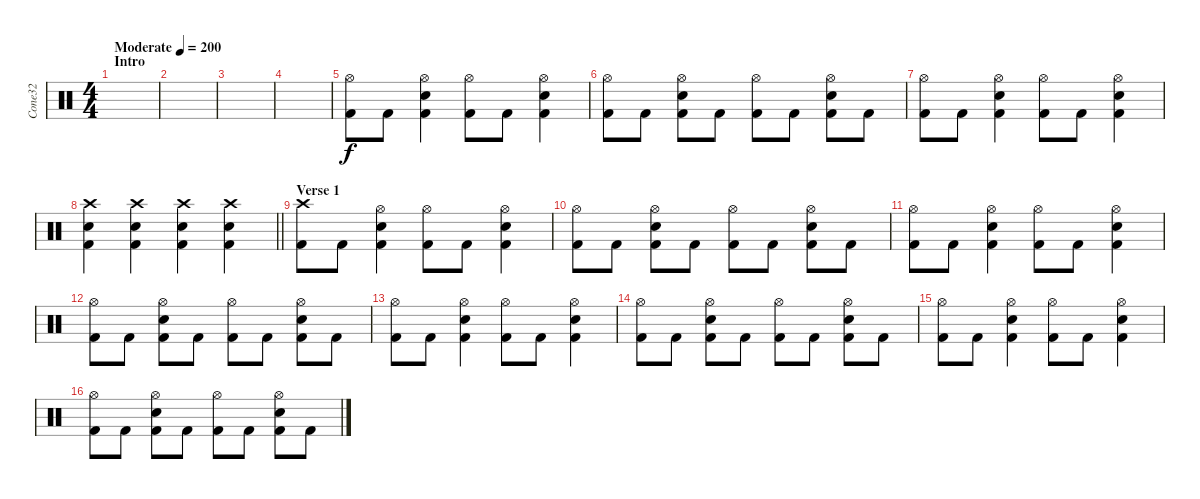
\track ("Cone32" "Cone32") {instrument percussion}
\staff {score}
\articulation defaults
\ts (4 4)
\section ("" "Intro")
\tempo (200 "Moderate")
\clef neutral
\ks c
|
|
|
|
("Hi-Hat (open)" "Kick (hit) 2").8 "Kick (hit) 2".8 ("Hi-Hat (open)" "Snare (hit) 2" "Kick (hit) 2").4 ("Hi-Hat (open)" "Kick (hit) 2").8 "Kick (hit) 2".8 ("Hi-Hat (open)" "Snare (hit) 2" "Kick (hit) 2").4 |
("Hi-Hat (open)" "Kick (hit) 2").8 "Kick (hit) 2".8 ("Hi-Hat (open)" "Snare (hit) 2" "Kick (hit) 2").8 "Kick (hit) 2".8 ("Hi-Hat (open)" "Kick (hit) 2").8 "Kick (hit) 2".8 ("Hi-Hat (open)" "Snare (hit) 2" "Kick (hit) 2").8 "Kick (hit) 2".8 |
("Hi-Hat (open)" "Kick (hit) 2").8 "Kick (hit) 2".8 ("Hi-Hat (open)" "Snare (hit) 2" "Kick (hit) 2").4 ("Hi-Hat (open)" "Kick (hit) 2").8 "Kick (hit) 2".8 ("Hi-Hat (open)" "Snare (hit) 2" "Kick (hit) 2").4 |
\barLineRight lightlight
("Crash high (hit)" "Snare (hit) 2" "Kick (hit) 2").4 ("Crash high (hit)" "Snare (hit) 2" "Kick (hit) 2").4 ("Crash high (hit)" "Snare (hit) 2" "Kick (hit) 2").4 ("Crash high (hit)" "Snare (hit) 2" "Kick (hit) 2").4 |
\section ("" "Verse 1")
("Crash high (hit)" "Kick (hit) 2").8 "Kick (hit) 2".8 ("Hi-Hat (open)" "Snare (hit) 2" "Kick (hit) 2").4 ("Hi-Hat (open)" "Kick (hit) 2").8 "Kick (hit) 2".8 ("Hi-Hat (open)" "Snare (hit) 2" "Kick (hit) 2").4 |
("Hi-Hat (open)" "Kick (hit) 2").8 "Kick (hit) 2".8 ("Hi-Hat (open)" "Snare (hit) 2" "Kick (hit) 2").8 "Kick (hit) 2".8 ("Hi-Hat (open)" "Kick (hit) 2").8 "Kick (hit) 2".8 ("Hi-Hat (open)" "Snare (hit) 2" "Kick (hit) 2").8 "Kick (hit) 2".8 |
("Hi-Hat (open)" "Kick (hit) 2").8 "Kick (hit) 2".8 ("Hi-Hat (open)" "Snare (hit) 2" "Kick (hit) 2").4 ("Hi-Hat (open)" "Kick (hit) 2").8 "Kick (hit) 2".8 ("Hi-Hat (open)" "Snare (hit) 2" "Kick (hit) 2").4 |
("Hi-Hat (open)" "Kick (hit) 2").8 "Kick (hit) 2".8 ("Hi-Hat (open)" "Snare (hit) 2" "Kick (hit) 2").8 "Kick (hit) 2".8 ("Hi-Hat (open)" "Kick (hit) 2").8 "Kick (hit) 2".8 ("Hi-Hat (open)" "Snare (hit) 2" "Kick (hit) 2").8 "Kick (hit) 2".8 |
("Hi-Hat (open)" "Kick (hit) 2").8 "Kick (hit) 2".8 ("Hi-Hat (open)" "Snare (hit) 2" "Kick (hit) 2").4 ("Hi-Hat (open)" "Kick (hit) 2").8 "Kick (hit) 2".8 ("Hi-Hat (open)" "Snare (hit) 2" "Kick (hit) 2").4 |
("Hi-Hat (open)" "Kick (hit) 2").8 "Kick (hit) 2".8 ("Hi-Hat (open)" "Snare (hit) 2" "Kick (hit) 2").8 "Kick (hit) 2".8 ("Hi-Hat (open)" "Kick (hit) 2").8 "Kick (hit) 2".8 ("Hi-Hat (open)" "Snare (hit) 2" "Kick (hit) 2").8 "Kick (hit) 2".8 |
("Hi-Hat (open)" "Kick (hit) 2").8 "Kick (hit) 2".8 ("Hi-Hat (open)" "Snare (hit) 2" "Kick (hit) 2").4 ("Hi-Hat (open)" "Kick (hit) 2").8 "Kick (hit) 2".8 ("Hi-Hat (open)" "Snare (hit) 2" "Kick (hit) 2").4 |
("Hi-Hat (open)" "Kick (hit) 2").8 "Kick (hit) 2".8 ("Hi-Hat (open)" "Snare (hit) 2" "Kick (hit) 2").8 "Kick (hit) 2".8 ("Hi-Hat (open)" "Kick (hit) 2").8 "Kick (hit) 2".8 ("Hi-Hat (open)" "Snare (hit) 2" "Kick (hit) 2").8 "Kick (hit) 2".8
